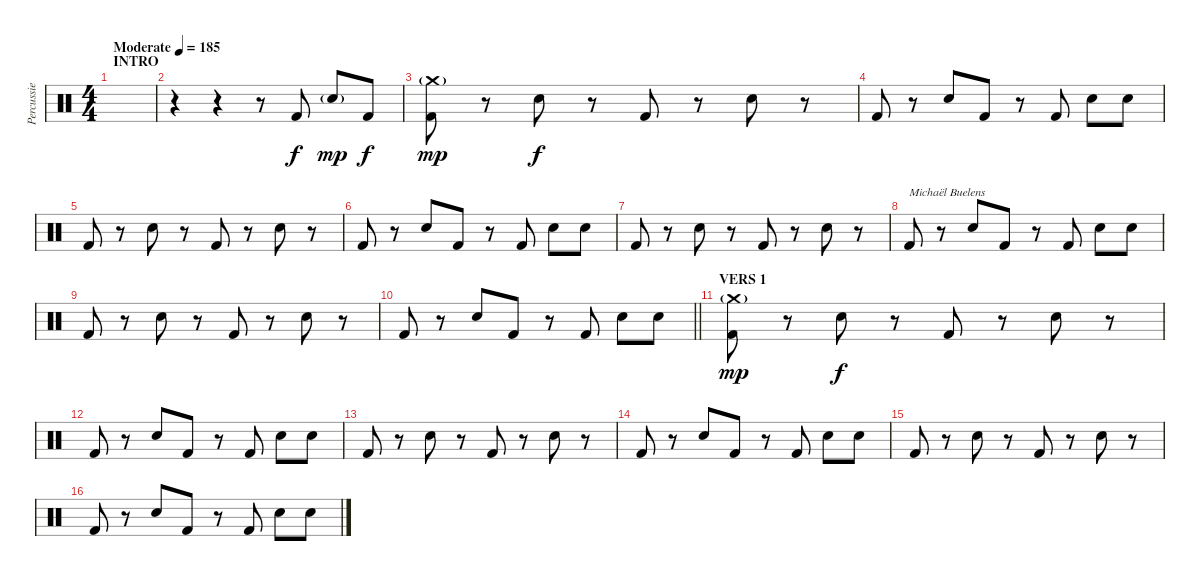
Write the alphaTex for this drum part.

\track ("Percussie" "Percussie") {instrument percussion}
\staff {score}
\articulation defaults
\ts (4 4)
\section ("" "INTRO")
\tempo (185 "Moderate")
\clef neutral
\ks c
|
r.4 r.4 r.8 "Kick (hit) 2".8 "Snare (hit) 2"{g}.8{dy mp} "Kick (hit) 2".8{dy f} |
("Crash medium (hit)"{g} "Kick (hit) 2").8{dy mp} r.8 "Snare (hit) 2".8{dy f} r.8 "Kick (hit) 2".8 r.8 "Snare (hit) 2".8 r.8 |
"Kick (hit) 2".8 r.8 "Snare (hit) 2".8 "Kick (hit) 2".8 r.8 "Kick (hit) 2".8 "Snare (hit) 2".8 "Snare (hit) 2".8 |
"Kick (hit) 2".8 r.8 "Snare (hit) 2".8 r.8 "Kick (hit) 2".8 r.8 "Snare (hit) 2".8 r.8 |
"Kick (hit) 2".8 r.8 "Snare (hit) 2".8 "Kick (hit) 2".8 r.8 "Kick (hit) 2".8 "Snare (hit) 2".8 "Snare (hit) 2".8 |
"Kick (hit) 2".8 r.8 "Snare (hit) 2".8 r.8 "Kick (hit) 2".8 r.8 "Snare (hit) 2".8 r.8 |
"Kick (hit) 2".8{txt "Michaël Buelens"} r.8 "Snare (hit) 2".8 "Kick (hit) 2".8 r.8 "Kick (hit) 2".8 "Snare (hit) 2".8 "Snare (hit) 2".8 |
"Kick (hit) 2".8 r.8 "Snare (hit) 2".8 r.8 "Kick (hit) 2".8 r.8 "Snare (hit) 2".8 r.8 |
\barLineRight lightlight "Kick (hit) 2".8
r.8 "Snare (hit) 2".8 "Kick (hit) 2".8 r.8 "Kick (hit) 2".8 "Snare (hit) 2".8 "Snare (hit) 2".8 |
\section ("" "VERS 1")
("Crash medium (hit)"{g} "Kick (hit) 2").8{dy mp} r.8 "Snare (hit) 2".8{dy f} r.8 "Kick (hit) 2".8 r.8 "Snare (hit) 2".8 r.8 |
"Kick (hit) 2".8 r.8 "Snare (hit) 2".8 "Kick (hit) 2".8 r.8 "Kick (hit) 2".8 "Snare (hit) 2".8 "Snare (hit) 2".8 |
"Kick (hit) 2".8 r.8 "Snare (hit) 2".8 r.8 "Kick (hit) 2".8 r.8 "Snare (hit) 2".8 r.8 |
"Kick (hit) 2".8 r.8 "Snare (hit) 2".8 "Kick (hit) 2".8 r.8 "Kick (hit) 2".8 "Snare (hit) 2".8 "Snare (hit) 2".8 |
"Kick (hit) 2".8 r.8 "Snare (hit) 2".8 r.8 "Kick (hit) 2".8 r.8 "Snare (hit) 2".8 r.8 |
"Kick (hit) 2".8 r.8 "Snare (hit) 2".8 "Kick (hit) 2".8 r.8 "Kick (hit) 2".8 "Snare (hit) 2".8 "Snare (hit) 2".8
